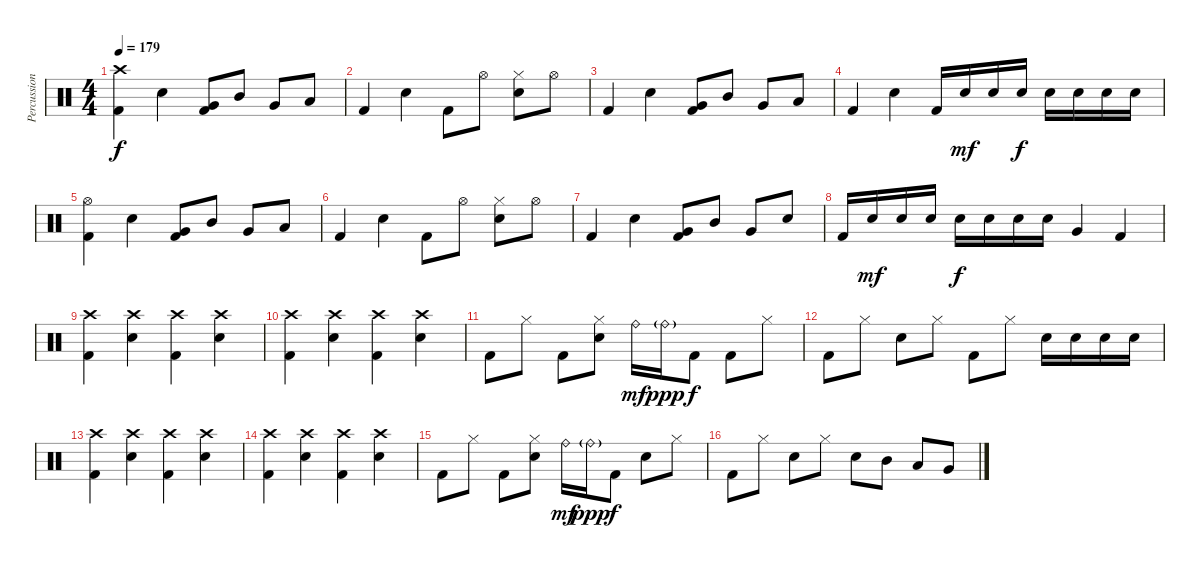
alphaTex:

\track ("Percussion" "Percussion") {instrument percussion}
\staff {score}
\articulation defaults
\ts (4 4)
\tempo 179
\clef neutral
\ks c
("Crash high (hit)" "Kick (hit) 2").4{dy f} "Electric Snare (hit)".4 ("Very Low Tom (hit)" "Kick (hit) 2").8 "Mid Tom (hit)".8 "Very Low Tom (hit)".8 "Low Tom (hit)".8 |
"Kick (hit) 2".4 "Electric Snare (hit)".4 "Kick (hit) 2".8 "Hi-Hat (open)".8 ("Hi-Hat (closed)" "Electric Snare (hit)").8 "Hi-Hat (open)".8 |
"Kick (hit) 2".4 "Electric Snare (hit)".4 ("Very Low Tom (hit)" "Kick (hit) 2").8 "Mid Tom (hit)".8 "Very Low Tom (hit)".8 "Low Tom (hit)".8 |
"Kick (hit) 2".4 "Electric Snare (hit)".4 "Kick (hit) 2".16 "Electric Snare (hit)".16{dy mf} "Electric Snare (hit)".16 "Electric Snare (hit)".16{dy f} "Electric Snare (hit)".16 "Electric Snare (hit)".16 "Electric Snare (hit)".16 "Electric Snare (hit)".16 |
("Hi-Hat (open)" "Kick (hit) 2").4 "Electric Snare (hit)".4 ("Very Low Tom (hit)" "Kick (hit) 2").8 "Mid Tom (hit)".8 "Very Low Tom (hit)".8 "Low Tom (hit)".8 |
"Kick (hit) 2".4 "Electric Snare (hit)".4 "Kick (hit) 2".8 "Hi-Hat (open)".8 ("Hi-Hat (closed)" "Electric Snare (hit)").8 "Hi-Hat (open)".8 |
"Kick (hit) 2".4 "Electric Snare (hit)".4 ("Very Low Tom (hit)" "Kick (hit) 2").8 "Mid Tom (hit)".8 "Very Low Tom (hit)".8 "Electric Snare (hit)".8 |
"Kick (hit) 2".16 "Electric Snare (hit)".16{dy mf} "Electric Snare (hit)".16 "Electric Snare (hit)".16 "Electric Snare (hit)".16{dy f} "Electric Snare (hit)".16 "Electric Snare (hit)".16 "Electric Snare (hit)".16 "Very Low Tom (hit)".4 "Kick (hit) 2".4 |
("Crash high (hit)" "Kick (hit) 2").4 ("Crash high (hit)" "Electric Snare (hit)").4 ("Crash high (hit)" "Kick (hit) 2").4 ("Crash high (hit)" "Electric Snare (hit)").4 |
("Crash high (hit)" "Kick (hit) 2").4 ("Crash high (hit)" "Electric Snare (hit)").4 ("Crash high (hit)" "Kick (hit) 2").4 ("Crash high (hit)" "Electric Snare (hit)").4 |
"Kick (hit) 2".8 "Hi-Hat (closed)".8 "Kick (hit) 2".8 ("Hi-Hat (closed)" "Electric Snare (hit)").8 "Ride (bell)".16{dy mf} "Ride (bell)"{g}.16{dy ppp} "Kick (hit) 2".8{dy f} "Kick (hit) 2".8 "Hi-Hat (closed)".8 |
"Kick (hit) 2".8 "Hi-Hat (closed)".8 "Electric Snare (hit)".8 "Hi-Hat (closed)".8 "Kick (hit) 2".8 "Hi-Hat (closed)".8 "Electric Snare (hit)".16 "Electric Snare (hit)".16 "Electric Snare (hit)".16 "Electric Snare (hit)".16 |
("Crash high (hit)" "Kick (hit) 2").4 ("Crash high (hit)" "Electric Snare (hit)").4 ("Crash high (hit)" "Kick (hit) 2").4 ("Crash high (hit)" "Electric Snare (hit)").4 |
("Crash high (hit)" "Kick (hit) 2").4 ("Crash high (hit)" "Electric Snare (hit)").4 ("Crash high (hit)" "Kick (hit) 2").4 ("Crash high (hit)" "Electric Snare (hit)").4 |
"Kick (hit) 2".8 "Hi-Hat (closed)".8 "Kick (hit) 2".8 ("Hi-Hat (closed)" "Electric Snare (hit)").8 "Ride (bell)".16{dy mf} "Ride (bell)"{g}.16{dy ppp} "Kick (hit) 2".8{dy f} "Electric Snare (hit)".8 "Hi-Hat (closed)".8 |
"Kick (hit) 2".8 "Hi-Hat (closed)".8 "Electric Snare (hit)".8 "Hi-Hat (closed)".8 "Electric Snare (hit)".8 "Mid Tom (hit)".8 "Low Tom (hit)".8 "Very Low Tom (hit)".8
